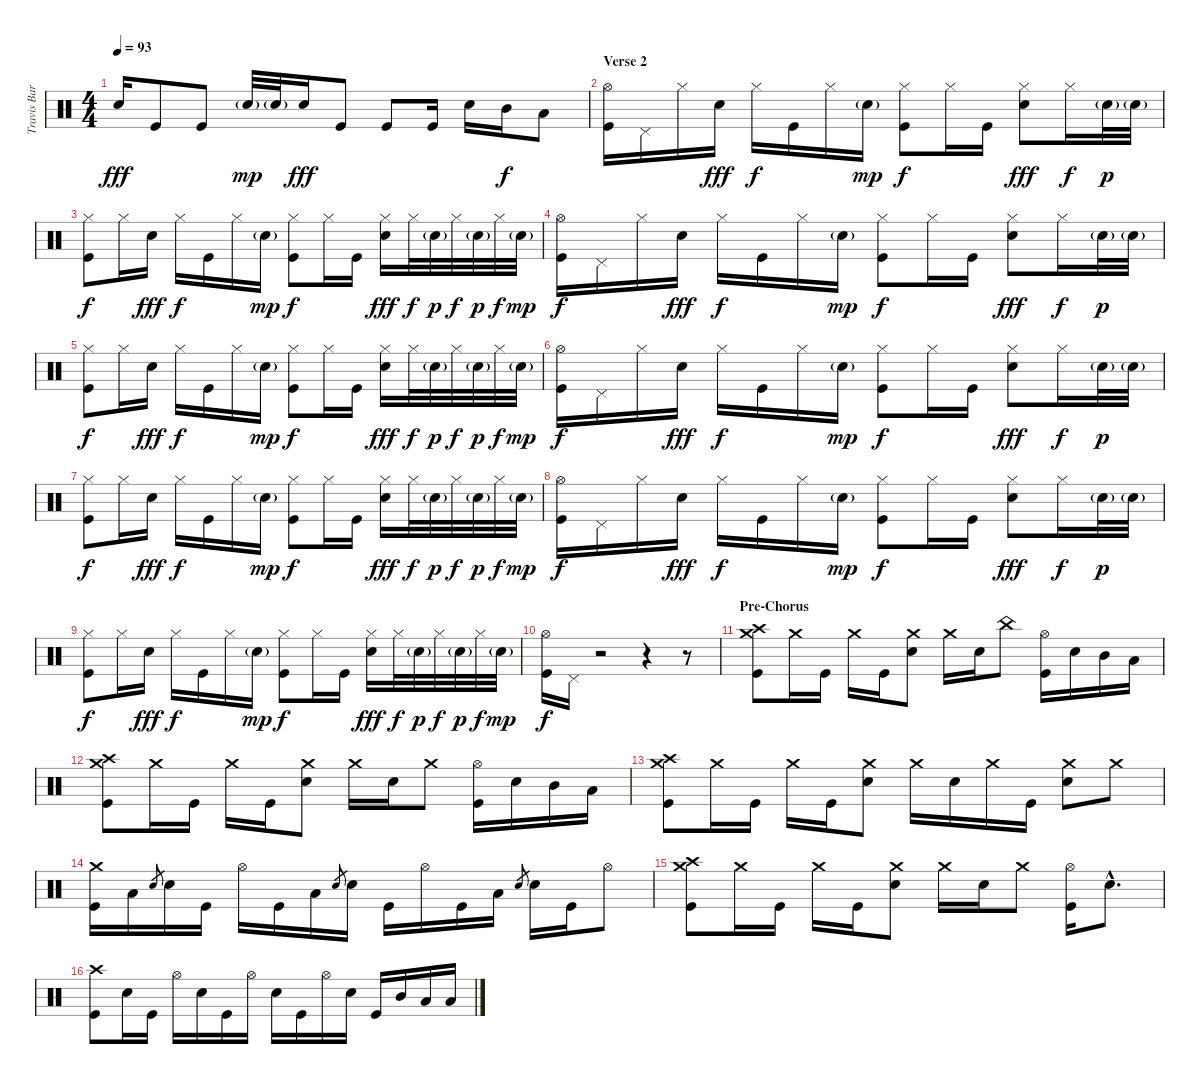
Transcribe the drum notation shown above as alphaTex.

\track ("Travis Barker" "Travis Bar") {instrument percussion}
\staff {score}
\articulation defaults
\ts (4 4)
\tempo 93
\clef neutral
\ks c "Electric Snare (hit)".16{dy fff} "Kick (hit)".8 "Kick (hit)".8 "Electric Snare (hit)"{g}.32{dy mp} "Electric Snare (hit)"{g}.32 "Electric Snare (hit)".16{dy fff} "Kick (hit)".8 "Kick (hit)".8 "Kick (hit)".16 "Electric Snare (hit)".16 "Mid Tom (hit)".16{dy f} "Low Tom (hit)".8
|
\section ("" "Verse 2")
("Hi-Hat (open)" "Kick (hit)").16 "Pedal Hi-Hat (hit)".16 "Hi-Hat (closed)".16 "Electric Snare (hit)".16{dy fff} "Hi-Hat (closed)".16{dy f} "Kick (hit)".16 "Hi-Hat (closed)".16 "Electric Snare (hit)"{g}.16{dy mp} ("Hi-Hat (closed)" "Kick (hit)").8{dy f} "Hi-Hat (closed)".16 "Kick (hit)".16 ("Hi-Hat (closed)" "Electric Snare (hit)").8{dy fff} "Hi-Hat (closed)".16{dy f} "Electric Snare (hit)"{g}.32{dy p} "Electric Snare (hit)"{g}.32 |
("Hi-Hat (closed)" "Kick (hit)").8{dy f} "Hi-Hat (closed)".16 "Electric Snare (hit)".16{dy fff} "Hi-Hat (closed)".16{dy f} "Kick (hit)".16 "Hi-Hat (closed)".16 "Electric Snare (hit)"{g}.16{dy mp} ("Hi-Hat (closed)" "Kick (hit)").8{dy f} "Hi-Hat (closed)".16 "Kick (hit)".16 ("Hi-Hat (closed)" "Electric Snare (hit)").16{dy fff} "Hi-Hat (closed)".32{dy f} "Electric Snare (hit)"{g}.32{dy p} "Hi-Hat (closed)".32{dy f} "Electric Snare (hit)"{g}.32{dy p} "Hi-Hat (closed)".32{dy f} "Electric Snare (hit)"{g}.32{dy mp} |
("Hi-Hat (open)" "Kick (hit)").16{dy f} "Pedal Hi-Hat (hit)".16 "Hi-Hat (closed)".16 "Electric Snare (hit)".16{dy fff} "Hi-Hat (closed)".16{dy f} "Kick (hit)".16 "Hi-Hat (closed)".16 "Electric Snare (hit)"{g}.16{dy mp} ("Hi-Hat (closed)" "Kick (hit)").8{dy f} "Hi-Hat (closed)".16 "Kick (hit)".16 ("Hi-Hat (closed)" "Electric Snare (hit)").8{dy fff} "Hi-Hat (closed)".16{dy f} "Electric Snare (hit)"{g}.32{dy p} "Electric Snare (hit)"{g}.32 |
("Hi-Hat (closed)" "Kick (hit)").8{dy f} "Hi-Hat (closed)".16 "Electric Snare (hit)".16{dy fff} "Hi-Hat (closed)".16{dy f} "Kick (hit)".16 "Hi-Hat (closed)".16 "Electric Snare (hit)"{g}.16{dy mp} ("Hi-Hat (closed)" "Kick (hit)").8{dy f} "Hi-Hat (closed)".16 "Kick (hit)".16 ("Hi-Hat (closed)" "Electric Snare (hit)").16{dy fff} "Hi-Hat (closed)".32{dy f} "Electric Snare (hit)"{g}.32{dy p} "Hi-Hat (closed)".32{dy f} "Electric Snare (hit)"{g}.32{dy p} "Hi-Hat (closed)".32{dy f} "Electric Snare (hit)"{g}.32{dy mp} |
("Hi-Hat (open)" "Kick (hit)").16{dy f} "Pedal Hi-Hat (hit)".16 "Hi-Hat (closed)".16 "Electric Snare (hit)".16{dy fff} "Hi-Hat (closed)".16{dy f} "Kick (hit)".16 "Hi-Hat (closed)".16 "Electric Snare (hit)"{g}.16{dy mp} ("Hi-Hat (closed)" "Kick (hit)").8{dy f} "Hi-Hat (closed)".16 "Kick (hit)".16 ("Hi-Hat (closed)" "Electric Snare (hit)").8{dy fff} "Hi-Hat (closed)".16{dy f} "Electric Snare (hit)"{g}.32{dy p} "Electric Snare (hit)"{g}.32 |
("Hi-Hat (closed)" "Kick (hit)").8{dy f} "Hi-Hat (closed)".16 "Electric Snare (hit)".16{dy fff} "Hi-Hat (closed)".16{dy f} "Kick (hit)".16 "Hi-Hat (closed)".16 "Electric Snare (hit)"{g}.16{dy mp} ("Hi-Hat (closed)" "Kick (hit)").8{dy f} "Hi-Hat (closed)".16 "Kick (hit)".16 ("Hi-Hat (closed)" "Electric Snare (hit)").16{dy fff} "Hi-Hat (closed)".32{dy f} "Electric Snare (hit)"{g}.32{dy p} "Hi-Hat (closed)".32{dy f} "Electric Snare (hit)"{g}.32{dy p} "Hi-Hat (closed)".32{dy f} "Electric Snare (hit)"{g}.32{dy mp} |
("Hi-Hat (open)" "Kick (hit)").16{dy f} "Pedal Hi-Hat (hit)".16 "Hi-Hat (closed)".16 "Electric Snare (hit)".16{dy fff} "Hi-Hat (closed)".16{dy f} "Kick (hit)".16 "Hi-Hat (closed)".16 "Electric Snare (hit)"{g}.16{dy mp} ("Hi-Hat (closed)" "Kick (hit)").8{dy f} "Hi-Hat (closed)".16 "Kick (hit)".16 ("Hi-Hat (closed)" "Electric Snare (hit)").8{dy fff} "Hi-Hat (closed)".16{dy f} "Electric Snare (hit)"{g}.32{dy p} "Electric Snare (hit)"{g}.32 |
("Hi-Hat (closed)" "Kick (hit)").8{dy f} "Hi-Hat (closed)".16 "Electric Snare (hit)".16{dy fff} "Hi-Hat (closed)".16{dy f} "Kick (hit)".16 "Hi-Hat (closed)".16 "Electric Snare (hit)"{g}.16{dy mp} ("Hi-Hat (closed)" "Kick (hit)").8{dy f} "Hi-Hat (closed)".16 "Kick (hit)".16 ("Hi-Hat (closed)" "Electric Snare (hit)").16{dy fff} "Hi-Hat (closed)".32{dy f} "Electric Snare (hit)"{g}.32{dy p} "Hi-Hat (closed)".32{dy f} "Electric Snare (hit)"{g}.32{dy p} "Hi-Hat (closed)".32{dy f} "Electric Snare (hit)"{g}.32{dy mp} |
("Hi-Hat (open)" "Kick (hit)").16{dy f} "Pedal Hi-Hat (hit)".16 r.2 r.4 r.8 |
\section ("" "Pre-Chorus")
("Crash high (hit)" "Crash medium (hit)" "Kick (hit)").8 "Crash medium (hit)".16 "Kick (hit)".16 "Crash medium (hit)".16 "Kick (hit)".16 ("Crash medium (hit)" "Electric Snare (hit)").8 "Crash medium (hit)".16 "Electric Snare (hit)".16 "China (hit)".8 ("Hi-Hat (open)" "Kick (hit)").16 "Electric Snare (hit)".16 "Mid Tom (hit)".16 "Low Tom (hit)".16 |
("Crash high (hit)" "Crash medium (hit)" "Kick (hit)").8 "Crash medium (hit)".16 "Kick (hit)".16 "Crash medium (hit)".16 "Kick (hit)".16 ("Crash medium (hit)" "Electric Snare (hit)").8 "Crash medium (hit)".16 "Electric Snare (hit)".16 "Crash medium (hit)".8 ("Hi-Hat (open)" "Kick (hit)").16 "Electric Snare (hit)".16 "Mid Tom (hit)".16 "Low Tom (hit)".16 |
("Crash high (hit)" "Crash medium (hit)" "Kick (hit)").8 "Crash medium (hit)".16 "Kick (hit)".16 "Crash medium (hit)".16 "Kick (hit)".16 ("Crash medium (hit)" "Electric Snare (hit)").8 "Crash medium (hit)".16 "Electric Snare (hit)".16 "Crash medium (hit)".16 "Kick (hit)".16 ("Crash medium (hit)" "Electric Snare (hit)").8 "Crash medium (hit)".8 |
("Crash medium (hit)" "Kick (hit)").16 "Low Tom (hit)".16 "Electric Snare (hit)".8{gr} "Electric Snare (hit)".16 "Kick (hit)".16 "Hi-Hat (open)".16 "Kick (hit)".16 "Low Tom (hit)".16 "Electric Snare (hit)".8{gr} "Electric Snare (hit)".16 "Kick (hit)".16 "Hi-Hat (open)".16 "Kick (hit)".16 "Low Tom (hit)".16 "Electric Snare (hit)".8{gr} "Electric Snare (hit)".16 "Kick (hit)".16 "Hi-Hat (open)".8 |
("Crash high (hit)" "Crash medium (hit)" "Kick (hit)").8 "Crash medium (hit)".16 "Kick (hit)".16 "Crash medium (hit)".16 "Kick (hit)".16 ("Crash medium (hit)" "Electric Snare (hit)").8 "Crash medium (hit)".16 "Electric Snare (hit)".16 "Crash medium (hit)".8 ("Hi-Hat (open)" "Kick (hit)").16 "Electric Snare (hit)"{hac}.8{d} |
("Crash high (hit)" "Kick (hit)").8 "Electric Snare (hit)".16 "Kick (hit)".16 "Hi-Hat (open)".16 "Electric Snare (hit)".16 "Kick (hit)".16 "Hi-Hat (open)".16 "Electric Snare (hit)".16 "Kick (hit)".16 "Hi-Hat (open)".16 "Electric Snare (hit)".16 "Kick (hit)".16 "Mid Tom (hit)".16 "Low Tom (hit)".16 "Low Tom (hit)".16
